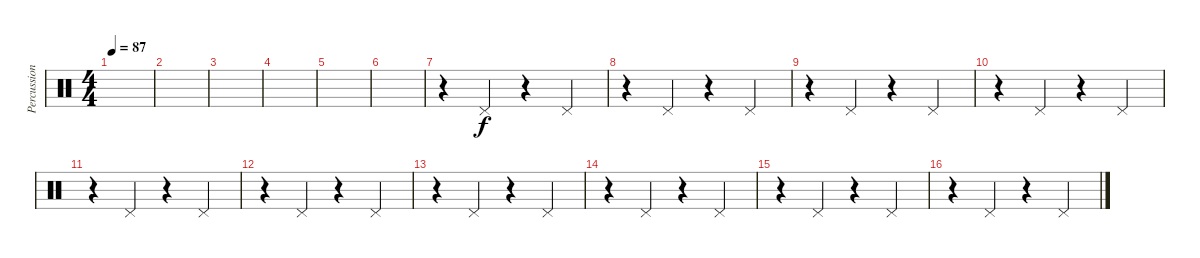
\track ("Percussion" "Percussion") {instrument percussion}
\staff {score}
\articulation defaults
\ts (4 4)
\tempo 87
\clef neutral
\ks c
|
|
|
|
|
|
r.4 "Pedal Hi-Hat (hit)".4 r.4 "Pedal Hi-Hat (hit)".4 |
r.4 "Pedal Hi-Hat (hit)".4 r.4 "Pedal Hi-Hat (hit)".4 |
r.4 "Pedal Hi-Hat (hit)".4 r.4 "Pedal Hi-Hat (hit)".4 |
r.4 "Pedal Hi-Hat (hit)".4 r.4 "Pedal Hi-Hat (hit)".4 |
r.4 "Pedal Hi-Hat (hit)".4 r.4 "Pedal Hi-Hat (hit)".4 |
r.4 "Pedal Hi-Hat (hit)".4 r.4 "Pedal Hi-Hat (hit)".4 |
r.4 "Pedal Hi-Hat (hit)".4 r.4 "Pedal Hi-Hat (hit)".4 |
r.4 "Pedal Hi-Hat (hit)".4 r.4 "Pedal Hi-Hat (hit)".4 |
r.4 "Pedal Hi-Hat (hit)".4 r.4 "Pedal Hi-Hat (hit)".4 |
r.4 "Pedal Hi-Hat (hit)".4 r.4 "Pedal Hi-Hat (hit)".4
